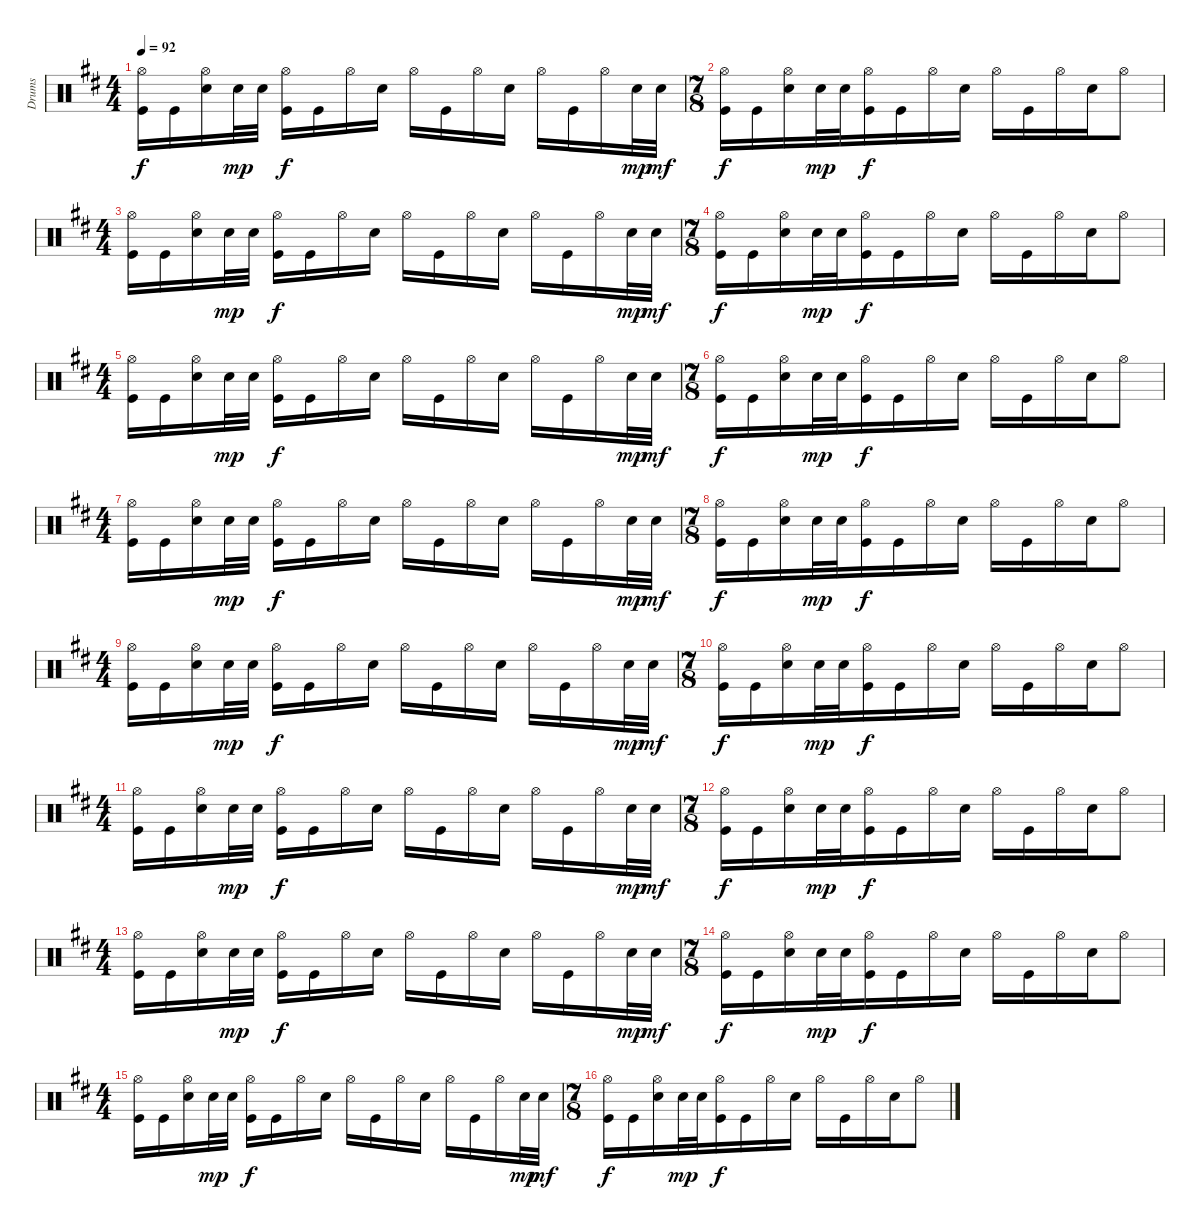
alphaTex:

\track ("Drums" "Drums") {instrument percussion}
\staff {score}
\articulation defaults
\ts (4 4)
\tempo 92
\clef neutral
\ks d
("Hi-Hat (open)" "Kick (hit)").16{dy f} "Kick (hit)".16 ("Hi-Hat (open)" "Snare (hit) 2").16 "Snare (hit) 2".32{dy mp} "Snare (hit) 2".32 ("Hi-Hat (open)" "Kick (hit)").16{dy f} "Kick (hit)".16 "Hi-Hat (open)".16 "Snare (hit) 2".16 "Hi-Hat (open)".16 "Kick (hit)".16 "Hi-Hat (open)".16 "Snare (hit) 2".16 "Hi-Hat (open)".16 "Kick (hit)".16 "Hi-Hat (open)".16 "Snare (hit) 2".32{dy mp} "Snare (hit) 2".32{dy mf} |
\ts (7 8)
("Hi-Hat (open)" "Kick (hit)").16{dy f} "Kick (hit)".16 ("Hi-Hat (open)" "Snare (hit) 2").16 "Snare (hit) 2".32{dy mp} "Snare (hit) 2".32 ("Hi-Hat (open)" "Kick (hit)").16{dy f} "Kick (hit)".16 "Hi-Hat (open)".16 "Snare (hit) 2".16 "Hi-Hat (open)".16 "Kick (hit)".16 "Hi-Hat (open)".16 "Snare (hit) 2".16 "Hi-Hat (open)".8 |
\ts (4 4)
("Hi-Hat (open)" "Kick (hit)").16 "Kick (hit)".16 ("Hi-Hat (open)" "Snare (hit) 2").16 "Snare (hit) 2".32{dy mp} "Snare (hit) 2".32 ("Hi-Hat (open)" "Kick (hit)").16{dy f} "Kick (hit)".16 "Hi-Hat (open)".16 "Snare (hit) 2".16 "Hi-Hat (open)".16 "Kick (hit)".16 "Hi-Hat (open)".16 "Snare (hit) 2".16 "Hi-Hat (open)".16 "Kick (hit)".16 "Hi-Hat (open)".16 "Snare (hit) 2".32{dy mp} "Snare (hit) 2".32{dy mf} |
\ts (7 8)
("Hi-Hat (open)" "Kick (hit)").16{dy f} "Kick (hit)".16 ("Hi-Hat (open)" "Snare (hit) 2").16 "Snare (hit) 2".32{dy mp} "Snare (hit) 2".32 ("Hi-Hat (open)" "Kick (hit)").16{dy f} "Kick (hit)".16 "Hi-Hat (open)".16 "Snare (hit) 2".16 "Hi-Hat (open)".16 "Kick (hit)".16 "Hi-Hat (open)".16 "Snare (hit) 2".16 "Hi-Hat (open)".8 |
\ts (4 4)
("Hi-Hat (open)" "Kick (hit)").16 "Kick (hit)".16 ("Hi-Hat (open)" "Snare (hit) 2").16 "Snare (hit) 2".32{dy mp} "Snare (hit) 2".32 ("Hi-Hat (open)" "Kick (hit)").16{dy f} "Kick (hit)".16 "Hi-Hat (open)".16 "Snare (hit) 2".16 "Hi-Hat (open)".16 "Kick (hit)".16 "Hi-Hat (open)".16 "Snare (hit) 2".16 "Hi-Hat (open)".16 "Kick (hit)".16 "Hi-Hat (open)".16 "Snare (hit) 2".32{dy mp} "Snare (hit) 2".32{dy mf} |
\ts (7 8)
("Hi-Hat (open)" "Kick (hit)").16{dy f} "Kick (hit)".16 ("Hi-Hat (open)" "Snare (hit) 2").16 "Snare (hit) 2".32{dy mp} "Snare (hit) 2".32 ("Hi-Hat (open)" "Kick (hit)").16{dy f} "Kick (hit)".16 "Hi-Hat (open)".16 "Snare (hit) 2".16 "Hi-Hat (open)".16 "Kick (hit)".16 "Hi-Hat (open)".16 "Snare (hit) 2".16 "Hi-Hat (open)".8 |
\ts (4 4)
("Hi-Hat (open)" "Kick (hit)").16 "Kick (hit)".16 ("Hi-Hat (open)" "Snare (hit) 2").16 "Snare (hit) 2".32{dy mp} "Snare (hit) 2".32 ("Hi-Hat (open)" "Kick (hit)").16{dy f} "Kick (hit)".16 "Hi-Hat (open)".16 "Snare (hit) 2".16 "Hi-Hat (open)".16 "Kick (hit)".16 "Hi-Hat (open)".16 "Snare (hit) 2".16 "Hi-Hat (open)".16 "Kick (hit)".16 "Hi-Hat (open)".16 "Snare (hit) 2".32{dy mp} "Snare (hit) 2".32{dy mf} |
\ts (7 8)
("Hi-Hat (open)" "Kick (hit)").16{dy f} "Kick (hit)".16 ("Hi-Hat (open)" "Snare (hit) 2").16 "Snare (hit) 2".32{dy mp} "Snare (hit) 2".32 ("Hi-Hat (open)" "Kick (hit)").16{dy f} "Kick (hit)".16 "Hi-Hat (open)".16 "Snare (hit) 2".16 "Hi-Hat (open)".16 "Kick (hit)".16 "Hi-Hat (open)".16 "Snare (hit) 2".16 "Hi-Hat (open)".8 |
\ts (4 4)
("Hi-Hat (open)" "Kick (hit)").16 "Kick (hit)".16 ("Hi-Hat (open)" "Snare (hit) 2").16 "Snare (hit) 2".32{dy mp} "Snare (hit) 2".32 ("Hi-Hat (open)" "Kick (hit)").16{dy f} "Kick (hit)".16 "Hi-Hat (open)".16 "Snare (hit) 2".16 "Hi-Hat (open)".16 "Kick (hit)".16 "Hi-Hat (open)".16 "Snare (hit) 2".16 "Hi-Hat (open)".16 "Kick (hit)".16 "Hi-Hat (open)".16 "Snare (hit) 2".32{dy mp} "Snare (hit) 2".32{dy mf} |
\ts (7 8)
("Hi-Hat (open)" "Kick (hit)").16{dy f} "Kick (hit)".16 ("Hi-Hat (open)" "Snare (hit) 2").16 "Snare (hit) 2".32{dy mp} "Snare (hit) 2".32 ("Hi-Hat (open)" "Kick (hit)").16{dy f} "Kick (hit)".16 "Hi-Hat (open)".16 "Snare (hit) 2".16 "Hi-Hat (open)".16 "Kick (hit)".16 "Hi-Hat (open)".16 "Snare (hit) 2".16 "Hi-Hat (open)".8 |
\ts (4 4)
("Hi-Hat (open)" "Kick (hit)").16 "Kick (hit)".16 ("Hi-Hat (open)" "Snare (hit) 2").16 "Snare (hit) 2".32{dy mp} "Snare (hit) 2".32 ("Hi-Hat (open)" "Kick (hit)").16{dy f} "Kick (hit)".16 "Hi-Hat (open)".16 "Snare (hit) 2".16 "Hi-Hat (open)".16 "Kick (hit)".16 "Hi-Hat (open)".16 "Snare (hit) 2".16 "Hi-Hat (open)".16 "Kick (hit)".16 "Hi-Hat (open)".16 "Snare (hit) 2".32{dy mp} "Snare (hit) 2".32{dy mf} |
\ts (7 8)
("Hi-Hat (open)" "Kick (hit)").16{dy f} "Kick (hit)".16 ("Hi-Hat (open)" "Snare (hit) 2").16 "Snare (hit) 2".32{dy mp} "Snare (hit) 2".32 ("Hi-Hat (open)" "Kick (hit)").16{dy f} "Kick (hit)".16 "Hi-Hat (open)".16 "Snare (hit) 2".16 "Hi-Hat (open)".16 "Kick (hit)".16 "Hi-Hat (open)".16 "Snare (hit) 2".16 "Hi-Hat (open)".8 |
\ts (4 4)
("Hi-Hat (open)" "Kick (hit)").16 "Kick (hit)".16 ("Hi-Hat (open)" "Snare (hit) 2").16 "Snare (hit) 2".32{dy mp} "Snare (hit) 2".32 ("Hi-Hat (open)" "Kick (hit)").16{dy f} "Kick (hit)".16 "Hi-Hat (open)".16 "Snare (hit) 2".16 "Hi-Hat (open)".16 "Kick (hit)".16 "Hi-Hat (open)".16 "Snare (hit) 2".16 "Hi-Hat (open)".16 "Kick (hit)".16 "Hi-Hat (open)".16 "Snare (hit) 2".32{dy mp} "Snare (hit) 2".32{dy mf} |
\ts (7 8)
("Hi-Hat (open)" "Kick (hit)").16{dy f} "Kick (hit)".16 ("Hi-Hat (open)" "Snare (hit) 2").16 "Snare (hit) 2".32{dy mp} "Snare (hit) 2".32 ("Hi-Hat (open)" "Kick (hit)").16{dy f} "Kick (hit)".16 "Hi-Hat (open)".16 "Snare (hit) 2".16 "Hi-Hat (open)".16 "Kick (hit)".16 "Hi-Hat (open)".16 "Snare (hit) 2".16 "Hi-Hat (open)".8 |
\ts (4 4)
("Hi-Hat (open)" "Kick (hit)").16 "Kick (hit)".16 ("Hi-Hat (open)" "Snare (hit) 2").16 "Snare (hit) 2".32{dy mp} "Snare (hit) 2".32 ("Hi-Hat (open)" "Kick (hit)").16{dy f} "Kick (hit)".16 "Hi-Hat (open)".16 "Snare (hit) 2".16 "Hi-Hat (open)".16 "Kick (hit)".16 "Hi-Hat (open)".16 "Snare (hit) 2".16 "Hi-Hat (open)".16 "Kick (hit)".16 "Hi-Hat (open)".16 "Snare (hit) 2".32{dy mp} "Snare (hit) 2".32{dy mf} |
\ts (7 8)
("Hi-Hat (open)" "Kick (hit)").16{dy f} "Kick (hit)".16 ("Hi-Hat (open)" "Snare (hit) 2").16 "Snare (hit) 2".32{dy mp} "Snare (hit) 2".32 ("Hi-Hat (open)" "Kick (hit)").16{dy f} "Kick (hit)".16 "Hi-Hat (open)".16 "Snare (hit) 2".16 "Hi-Hat (open)".16 "Kick (hit)".16 "Hi-Hat (open)".16 "Snare (hit) 2".16 "Hi-Hat (open)".8
